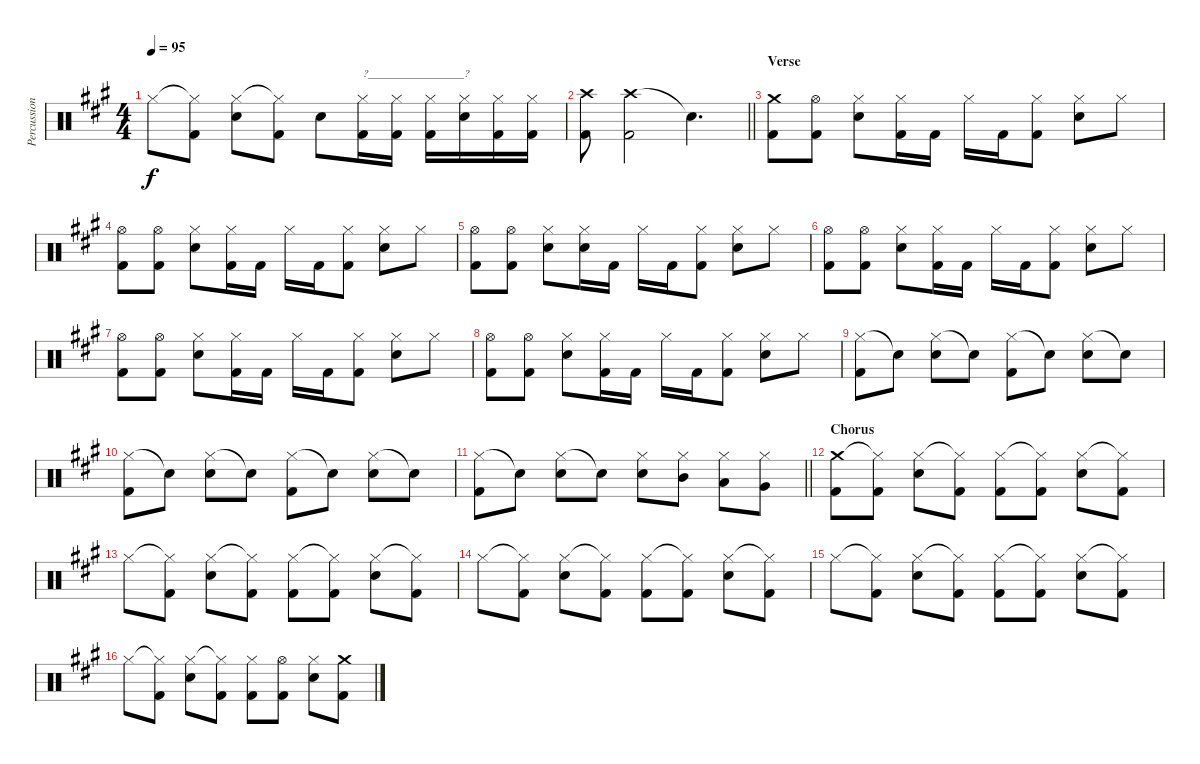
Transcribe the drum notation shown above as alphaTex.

\track ("Percussion" "Percussion") {instrument percussion}
\staff {score}
\articulation defaults
\ts (4 4)
\tempo 95
\clef neutral
\ks a "Hi-Hat (closed)".8{dy f}
("Hi-Hat (closed)"{t} "Kick (hit) 2").8 ("Hi-Hat (closed)" "Electric Snare (hit)").8 ("Hi-Hat (closed)"{t} "Kick (hit) 2").8 "Electric Snare (hit)".8 ("Hi-Hat (closed)" "Kick (hit) 2").16{txt "?________________?"} ("Hi-Hat (closed)" "Kick (hit) 2").16 ("Hi-Hat (closed)" "Kick (hit) 2").16 ("Hi-Hat (closed)" "Electric Snare (hit)").16 ("Hi-Hat (closed)" "Kick (hit) 2").16 ("Hi-Hat (closed)" "Kick (hit) 2").16 |
\barLineRight lightlight
("Crash high (hit)" "Kick (hit) 2").8 ("Crash high (hit)" "Kick (hit) 2").2 "Snare (hit)"{t}.4{d} |
\section ("" "Verse")
("Crash medium (hit)" "Kick (hit) 2").8 ("Hi-Hat (open)" "Kick (hit) 2").8 ("Hi-Hat (closed)" "Electric Snare (hit)").8 ("Hi-Hat (closed)" "Kick (hit) 2").16 "Kick (hit) 2".16 "Hi-Hat (closed)".16 "Kick (hit) 2".16 ("Hi-Hat (closed)" "Kick (hit) 2").8 ("Hi-Hat (closed)" "Electric Snare (hit)").8 "Hi-Hat (closed)".8 |
("Hi-Hat (open)" "Kick (hit) 2").8 ("Hi-Hat (open)" "Kick (hit) 2").8 ("Hi-Hat (closed)" "Electric Snare (hit)").8 ("Hi-Hat (closed)" "Kick (hit) 2").16 "Kick (hit) 2".16 "Hi-Hat (closed)".16 "Kick (hit) 2".16 ("Hi-Hat (closed)" "Kick (hit) 2").8 ("Hi-Hat (closed)" "Electric Snare (hit)").8 "Hi-Hat (closed)".8 |
("Hi-Hat (open)" "Kick (hit) 2").8 ("Hi-Hat (open)" "Kick (hit) 2").8 ("Hi-Hat (closed)" "Electric Snare (hit)").8 ("Hi-Hat (closed)" "Electric Snare (hit)").16 "Kick (hit) 2".16 "Hi-Hat (closed)".16 "Kick (hit) 2".16 ("Hi-Hat (closed)" "Kick (hit) 2").8 ("Hi-Hat (closed)" "Electric Snare (hit)").8 "Hi-Hat (closed)".8 |
("Hi-Hat (open)" "Kick (hit) 2").8 ("Hi-Hat (open)" "Kick (hit) 2").8 ("Hi-Hat (closed)" "Electric Snare (hit)").8 ("Hi-Hat (closed)" "Kick (hit) 2").16 "Kick (hit) 2".16 "Hi-Hat (closed)".16 "Kick (hit) 2".16 ("Hi-Hat (closed)" "Kick (hit) 2").8 ("Hi-Hat (closed)" "Electric Snare (hit)").8 "Hi-Hat (closed)".8 |
("Hi-Hat (open)" "Kick (hit) 2").8 ("Hi-Hat (open)" "Kick (hit) 2").8 ("Hi-Hat (closed)" "Electric Snare (hit)").8 ("Hi-Hat (closed)" "Kick (hit) 2").16 "Kick (hit) 2".16 "Hi-Hat (closed)".16 "Kick (hit) 2".16 ("Hi-Hat (closed)" "Kick (hit) 2").8 ("Hi-Hat (closed)" "Electric Snare (hit)").8 "Hi-Hat (closed)".8 |
("Hi-Hat (open)" "Kick (hit) 2").8 ("Hi-Hat (open)" "Kick (hit) 2").8 ("Hi-Hat (closed)" "Electric Snare (hit)").8 ("Hi-Hat (closed)" "Kick (hit) 2").16 "Kick (hit) 2".16 "Hi-Hat (closed)".16 "Kick (hit) 2".16 ("Hi-Hat (closed)" "Kick (hit) 2").8 ("Hi-Hat (closed)" "Electric Snare (hit)").8 "Hi-Hat (closed)".8 |
("Hi-Hat (closed)" "Kick (hit) 2").8 "Snare (hit)"{t}.8 ("Hi-Hat (closed)" "Electric Snare (hit)").8 "Snare (hit)"{t}.8 ("Hi-Hat (closed)" "Kick (hit) 2").8 "Snare (hit)"{t}.8 ("Hi-Hat (closed)" "Electric Snare (hit)").8 "Snare (hit)"{t}.8 |
("Hi-Hat (closed)" "Kick (hit) 2").8 "Snare (hit)"{t}.8 ("Hi-Hat (closed)" "Electric Snare (hit)").8 "Snare (hit)"{t}.8 ("Hi-Hat (closed)" "Kick (hit) 2").8 "Snare (hit)"{t}.8 ("Hi-Hat (closed)" "Electric Snare (hit)").8 "Snare (hit)"{t}.8 |
\barLineRight lightlight
("Hi-Hat (closed)" "Kick (hit) 2").8 "Snare (hit)"{t}.8 ("Hi-Hat (closed)" "Electric Snare (hit)").8 "Snare (hit)"{t}.8 ("Hi-Hat (closed)" "Electric Snare (hit)").8 ("Hi-Hat (closed)" "Mid Tom (hit)").8 ("Hi-Hat (closed)" "Low Tom (hit)").8 ("Hi-Hat (closed)" "Very Low Tom (hit)").8 |
\section ("" "Chorus")
("Crash medium (hit)" "Kick (hit) 2").8 ("Hi-Hat (closed)"{t} "Kick (hit) 2").8 ("Hi-Hat (closed)" "Electric Snare (hit)").8 ("Hi-Hat (closed)"{t} "Kick (hit) 2").8 ("Hi-Hat (closed)" "Kick (hit) 2").8 ("Hi-Hat (closed)"{t} "Kick (hit) 2").8 ("Hi-Hat (closed)" "Electric Snare (hit)").8 ("Hi-Hat (closed)"{t} "Kick (hit) 2").8 |
"Hi-Hat (closed)".8 ("Hi-Hat (closed)"{t} "Kick (hit) 2").8 ("Hi-Hat (closed)" "Electric Snare (hit)").8 ("Hi-Hat (closed)"{t} "Kick (hit) 2").8 ("Hi-Hat (closed)" "Kick (hit) 2").8 ("Hi-Hat (closed)"{t} "Kick (hit) 2").8 ("Hi-Hat (closed)" "Electric Snare (hit)").8 ("Hi-Hat (closed)"{t} "Kick (hit) 2").8 |
"Hi-Hat (closed)".8 ("Hi-Hat (closed)"{t} "Kick (hit) 2").8 ("Hi-Hat (closed)" "Electric Snare (hit)").8 ("Hi-Hat (closed)"{t} "Kick (hit) 2").8 ("Hi-Hat (closed)" "Kick (hit) 2").8 ("Hi-Hat (closed)"{t} "Kick (hit) 2").8 ("Hi-Hat (closed)" "Electric Snare (hit)").8 ("Hi-Hat (closed)"{t} "Kick (hit) 2").8 |
"Hi-Hat (closed)".8 ("Hi-Hat (closed)"{t} "Kick (hit) 2").8 ("Hi-Hat (closed)" "Electric Snare (hit)").8 ("Hi-Hat (closed)"{t} "Kick (hit) 2").8 ("Hi-Hat (closed)" "Kick (hit) 2").8 ("Hi-Hat (closed)"{t} "Kick (hit) 2").8 ("Hi-Hat (closed)" "Electric Snare (hit)").8 ("Hi-Hat (closed)"{t} "Kick (hit) 2").8 |
"Hi-Hat (closed)".8 ("Hi-Hat (closed)"{t} "Kick (hit) 2").8 ("Hi-Hat (closed)" "Electric Snare (hit)").8 ("Hi-Hat (closed)"{t} "Kick (hit) 2").8 ("Hi-Hat (closed)" "Kick (hit) 2").8 ("Hi-Hat (open)" "Kick (hit) 2").8 ("Hi-Hat (closed)" "Electric Snare (hit)").8 ("Crash medium (hit)" "Kick (hit) 2").8
